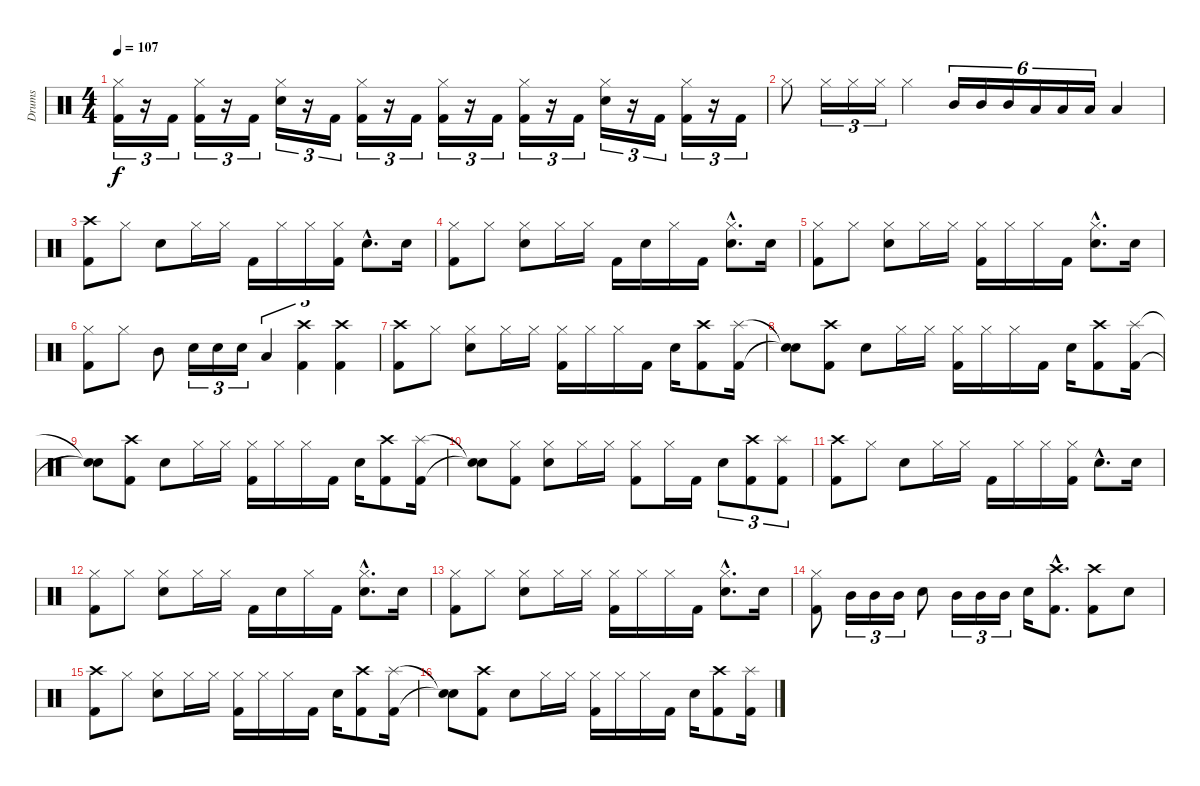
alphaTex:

\track ("Drums" "Drums") {instrument percussion}
\staff {score}
\articulation defaults
\ts (4 4)
\tempo 107
\clef neutral
\ks c
("Hi-Hat (closed)" "Kick (hit) 2").16{tu (3 2) dy f} r.16{tu (3 2)} "Kick (hit) 2".16{tu (3 2)} ("Hi-Hat (closed)" "Kick (hit) 2").16{tu (3 2)} r.16{tu (3 2)} "Kick (hit) 2".16{tu (3 2)} ("Hi-Hat (closed)" "Electric Snare (hit)").16{tu (3 2)} r.16{tu (3 2)} "Kick (hit) 2".16{tu (3 2)} ("Hi-Hat (closed)" "Kick (hit) 2").16{tu (3 2)} r.16{tu (3 2)} "Kick (hit) 2".16{tu (3 2)} ("Hi-Hat (closed)" "Kick (hit) 2").16{tu (3 2)} r.16{tu (3 2)} "Kick (hit) 2".16{tu (3 2)} ("Hi-Hat (closed)" "Kick (hit) 2").16{tu (3 2)} r.16{tu (3 2)} "Kick (hit) 2".16{tu (3 2)} ("Hi-Hat (closed)" "Electric Snare (hit)").16{tu (3 2)} r.16{tu (3 2)} "Kick (hit) 2".16{tu (3 2)} ("Hi-Hat (closed)" "Kick (hit) 2").16{tu (3 2)} r.16{tu (3 2)} "Kick (hit) 2".16{tu (3 2)} |
"Hi-Hat (closed)".8 "Hi-Hat (closed)".16{tu (3 2)} "Hi-Hat (closed)".16{tu (3 2)} "Hi-Hat (closed)".16{tu (3 2)} "Hi-Hat (closed)".4 "Mid Tom (hit)".16{tu (6 4)} "Mid Tom (hit)".16{tu (6 4)} "Mid Tom (hit)".16{tu (6 4)} "Low Tom (hit)".16{tu (6 4)} "Low Tom (hit)".16{tu (6 4)} "Low Tom (hit)".16{tu (6 4)} "Low Tom (hit)".4 |
("Crash high (hit)" "Kick (hit) 2").8 "Hi-Hat (closed)".8 "Electric Snare (hit)".8 "Hi-Hat (closed)".16 "Hi-Hat (closed)".16 "Kick (hit) 2".16 "Hi-Hat (closed)".16 "Hi-Hat (closed)".16 ("Hi-Hat (closed)" "Kick (hit) 2").16 "Electric Snare (hit)"{hac}.8{d} "Electric Snare (hit)".16 |
("Hi-Hat (closed)" "Kick (hit) 2").8 "Hi-Hat (closed)".8 ("Hi-Hat (closed)" "Electric Snare (hit)").8 "Hi-Hat (closed)".16 "Hi-Hat (closed)".16 "Kick (hit) 2".16 "Electric Snare (hit)".16 "Hi-Hat (closed)".16 "Kick (hit) 2".16 ("Hi-Hat (closed)"{hac} "Electric Snare (hit)"{hac}).8{d} "Electric Snare (hit)".16 |
("Hi-Hat (closed)" "Kick (hit) 2").8 "Hi-Hat (closed)".8 ("Hi-Hat (closed)" "Electric Snare (hit)").8 "Hi-Hat (closed)".16 "Hi-Hat (closed)".16 ("Hi-Hat (closed)" "Kick (hit) 2").16 "Hi-Hat (closed)".16 "Hi-Hat (closed)".16 "Kick (hit) 2".16 ("Hi-Hat (closed)"{hac} "Electric Snare (hit)"{hac}).8{d} "Electric Snare (hit)".16 |
("Hi-Hat (closed)" "Kick (hit) 2").8 "Hi-Hat (closed)".8 "Mid Tom (hit)".8 "Electric Snare (hit)".16{tu (3 2)} "Electric Snare (hit)".16{tu (3 2)} "Electric Snare (hit)".16{tu (3 2)} "Low Tom (hit)".4{tu (3 2)} ("Crash high (hit)" "Kick (hit) 2").4{tu (3 2)} ("Crash high (hit)" "Kick (hit) 2").4{tu (3 2)} |
("Crash high (hit)" "Kick (hit) 2").8 "Hi-Hat (closed)".8 ("Hi-Hat (closed)" "Electric Snare (hit)").8 "Hi-Hat (closed)".16 "Hi-Hat (closed)".16 ("Hi-Hat (closed)" "Kick (hit) 2").16 "Hi-Hat (closed)".16 "Hi-Hat (closed)".16 "Kick (hit) 2".16 "Electric Snare (hit)".16 ("Crash high (hit)" "Kick (hit) 2").8 ("Splash (hit)" "Kick (hit) 2").16 |
("Snare (hit)"{t} "Snare (hit)"{t}).8 ("Crash high (hit)" "Kick (hit) 2").8 "Electric Snare (hit)".8 "Hi-Hat (closed)".16 "Hi-Hat (closed)".16 ("Hi-Hat (closed)" "Kick (hit) 2").16 "Hi-Hat (closed)".16 "Hi-Hat (closed)".16 "Kick (hit) 2".16 "Electric Snare (hit)".16 ("Crash high (hit)" "Kick (hit) 2").8 ("Splash (hit)" "Kick (hit) 2").16 |
("Snare (hit)"{t} "Snare (hit)"{t}).8 ("Crash high (hit)" "Kick (hit) 2").8 "Electric Snare (hit)".8 "Hi-Hat (closed)".16 "Hi-Hat (closed)".16 ("Hi-Hat (closed)" "Kick (hit) 2").16 "Hi-Hat (closed)".16 "Hi-Hat (closed)".16 "Kick (hit) 2".16 "Electric Snare (hit)".16 ("Crash high (hit)" "Kick (hit) 2").8 ("Splash (hit)" "Kick (hit) 2").16 |
("Snare (hit)"{t} "Snare (hit)"{t}).8 ("Hi-Hat (closed)" "Kick (hit) 2").8 ("Hi-Hat (closed)" "Electric Snare (hit)").8 "Hi-Hat (closed)".16 "Hi-Hat (closed)".16 ("Hi-Hat (closed)" "Kick (hit) 2").8 "Hi-Hat (closed)".16 "Kick (hit) 2".16 "Electric Snare (hit)".8{tu (3 2)} ("Crash high (hit)" "Kick (hit) 2").8{tu (3 2)} ("Splash (hit)" "Kick (hit) 2").8{tu (3 2)} |
("Crash high (hit)" "Kick (hit) 2").8 "Hi-Hat (closed)".8 "Electric Snare (hit)".8 "Hi-Hat (closed)".16 "Hi-Hat (closed)".16 "Kick (hit) 2".16 "Hi-Hat (closed)".16 "Hi-Hat (closed)".16 ("Hi-Hat (closed)" "Kick (hit) 2").16 "Electric Snare (hit)"{hac}.8{d} "Electric Snare (hit)".16 |
("Hi-Hat (closed)" "Kick (hit) 2").8 "Hi-Hat (closed)".8 ("Hi-Hat (closed)" "Electric Snare (hit)").8 "Hi-Hat (closed)".16 "Hi-Hat (closed)".16 "Kick (hit) 2".16 "Electric Snare (hit)".16 "Hi-Hat (closed)".16 "Kick (hit) 2".16 ("Hi-Hat (closed)"{hac} "Electric Snare (hit)"{hac}).8{d} "Electric Snare (hit)".16 |
("Hi-Hat (closed)" "Kick (hit) 2").8 "Hi-Hat (closed)".8 ("Hi-Hat (closed)" "Electric Snare (hit)").8 "Hi-Hat (closed)".16 "Hi-Hat (closed)".16 ("Hi-Hat (closed)" "Kick (hit) 2").16 "Hi-Hat (closed)".16 "Hi-Hat (closed)".16 "Kick (hit) 2".16 ("Hi-Hat (closed)"{hac} "Electric Snare (hit)"{hac}).8{d} "Electric Snare (hit)".16 |
("Hi-Hat (closed)" "Kick (hit) 2").8 "Mid Tom (hit)".16{tu (3 2)} "Mid Tom (hit)".16{tu (3 2)} "Mid Tom (hit)".16{tu (3 2)} "Electric Snare (hit)".8 "Mid Tom (hit)".16{tu (3 2)} "Mid Tom (hit)".16{tu (3 2)} "Mid Tom (hit)".16{tu (3 2)} "Electric Snare (hit)".16 ("Crash high (hit)"{hac} "Kick (hit) 2"{hac}).8{d} ("Crash high (hit)" "Kick (hit) 2").8 "Electric Snare (hit)".8 |
("Crash high (hit)" "Kick (hit) 2").8 "Hi-Hat (closed)".8 ("Hi-Hat (closed)" "Electric Snare (hit)").8 "Hi-Hat (closed)".16 "Hi-Hat (closed)".16 ("Hi-Hat (closed)" "Kick (hit) 2").16 "Hi-Hat (closed)".16 "Hi-Hat (closed)".16 "Kick (hit) 2".16 "Electric Snare (hit)".16 ("Crash high (hit)" "Kick (hit) 2").8 ("Splash (hit)" "Kick (hit) 2").16 |
("Snare (hit)"{t} "Snare (hit)"{t}).8 ("Crash high (hit)" "Kick (hit) 2").8 "Electric Snare (hit)".8 "Hi-Hat (closed)".16 "Hi-Hat (closed)".16 ("Hi-Hat (closed)" "Kick (hit) 2").16 "Hi-Hat (closed)".16 "Hi-Hat (closed)".16 "Kick (hit) 2".16 "Electric Snare (hit)".16 ("Crash high (hit)" "Kick (hit) 2").8 ("Splash (hit)" "Kick (hit) 2").16
